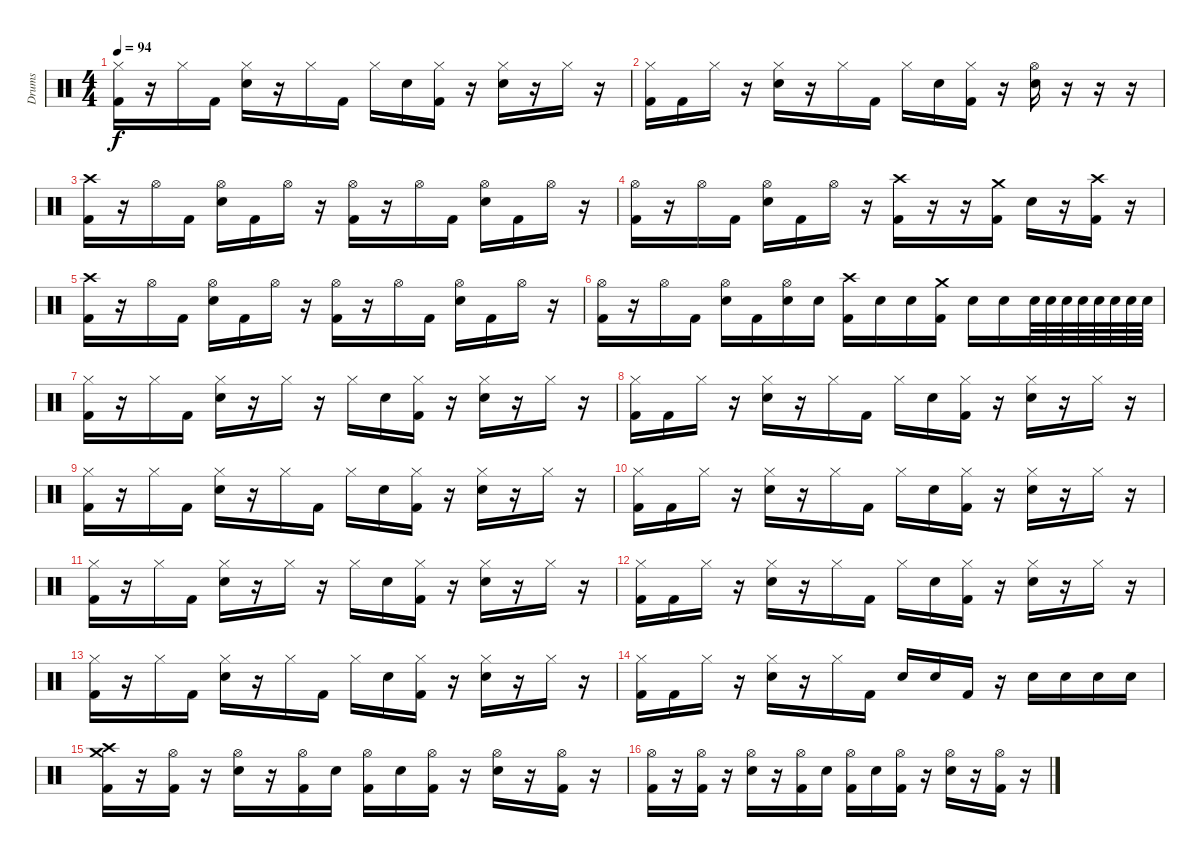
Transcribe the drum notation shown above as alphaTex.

\track ("Drums" "Drums") {instrument percussion}
\staff {score}
\articulation defaults
\ts (4 4)
\tempo 94
\clef neutral
\ks c
("Hi-Hat (closed)" "Kick (hit) 2").16{dy f} r.16 "Hi-Hat (closed)".16 "Kick (hit) 2".16 ("Hi-Hat (closed)" "Snare (hit) 2").16 r.16 "Hi-Hat (closed)".16 "Kick (hit) 2".16 "Hi-Hat (closed)".16 "Snare (hit) 2".16 ("Hi-Hat (closed)" "Kick (hit) 2").16 r.16 ("Hi-Hat (closed)" "Snare (hit) 2").16 r.16 "Hi-Hat (closed)".16 r.16 |
("Hi-Hat (closed)" "Kick (hit) 2").16 "Kick (hit) 2".16 "Hi-Hat (closed)".16 r.16 ("Hi-Hat (closed)" "Snare (hit) 2").16 r.16 "Hi-Hat (closed)".16 "Kick (hit) 2".16 "Hi-Hat (closed)".16 "Snare (hit) 2".16 ("Hi-Hat (closed)" "Kick (hit) 2").16 r.16 ("Hi-Hat (open)" "Snare (hit) 2").16 r.16 r.16 r.16 |
("Crash high (hit)" "Kick (hit) 2").16 r.16 "Hi-Hat (open)".16 "Kick (hit) 2".16 ("Hi-Hat (open)" "Snare (hit) 2").16 "Kick (hit) 2".16 "Hi-Hat (open)".16 r.16 ("Hi-Hat (open)" "Kick (hit) 2").16 r.16 "Hi-Hat (open)".16 "Kick (hit) 2".16 ("Hi-Hat (open)" "Snare (hit) 2").16 "Kick (hit) 2".16 "Hi-Hat (open)".16 r.16 |
("Hi-Hat (open)" "Kick (hit) 2").16 r.16 "Hi-Hat (open)".16 "Kick (hit) 2".16 ("Hi-Hat (open)" "Snare (hit) 2").16 "Kick (hit) 2".16 "Hi-Hat (open)".16 r.16 ("Crash high (hit)" "Kick (hit) 2").16 r.16 r.16 ("Crash medium (hit)" "Kick (hit) 2").16 "Snare (hit) 2".16 r.16 ("Crash high (hit)" "Kick (hit) 2").16 r.16 |
("Crash high (hit)" "Kick (hit) 2").16 r.16 "Hi-Hat (open)".16 "Kick (hit) 2".16 ("Hi-Hat (open)" "Snare (hit) 2").16 "Kick (hit) 2".16 "Hi-Hat (open)".16 r.16 ("Hi-Hat (open)" "Kick (hit) 2").16 r.16 "Hi-Hat (open)".16 "Kick (hit) 2".16 ("Hi-Hat (open)" "Snare (hit) 2").16 "Kick (hit) 2".16 "Hi-Hat (open)".16 r.16 |
("Hi-Hat (open)" "Kick (hit) 2").16 r.16 "Hi-Hat (open)".16 "Kick (hit) 2".16 ("Hi-Hat (open)" "Snare (hit) 2").16 "Kick (hit) 2".16 ("Hi-Hat (open)" "Snare (hit) 2").16 "Snare (hit) 2".16 ("Crash high (hit)" "Kick (hit) 2").16 "Snare (hit) 2".16 "Snare (hit) 2".16 ("Crash medium (hit)" "Kick (hit) 2").16 "Snare (hit) 2".16 "Snare (hit) 2".16 "Snare (hit) 2".64 "Snare (hit) 2".64 "Snare (hit) 2".64 "Snare (hit) 2".64 "Snare (hit) 2".64 "Snare (hit) 2".64 "Snare (hit) 2".64 "Snare (hit) 2".64 |
("Hi-Hat (closed)" "Kick (hit) 2").16 r.16 "Hi-Hat (closed)".16 "Kick (hit) 2".16 ("Hi-Hat (closed)" "Snare (hit) 2").16 r.16 "Hi-Hat (closed)".16 r.16 "Hi-Hat (closed)".16 "Snare (hit) 2".16 ("Hi-Hat (closed)" "Kick (hit) 2").16 r.16 ("Hi-Hat (closed)" "Snare (hit) 2").16 r.16 "Hi-Hat (closed)".16 r.16 |
("Hi-Hat (closed)" "Kick (hit) 2").16 "Kick (hit) 2".16 "Hi-Hat (closed)".16 r.16 ("Hi-Hat (closed)" "Snare (hit) 2").16 r.16 "Hi-Hat (closed)".16 "Kick (hit) 2".16 "Hi-Hat (closed)".16 "Snare (hit) 2".16 ("Hi-Hat (closed)" "Kick (hit) 2").16 r.16 ("Hi-Hat (closed)" "Snare (hit) 2").16 r.16 "Hi-Hat (closed)".16 r.16 |
("Hi-Hat (closed)" "Kick (hit) 2").16 r.16 "Hi-Hat (closed)".16 "Kick (hit) 2".16 ("Hi-Hat (closed)" "Snare (hit) 2").16 r.16 "Hi-Hat (closed)".16 "Kick (hit) 2".16 "Hi-Hat (closed)".16 "Snare (hit) 2".16 ("Hi-Hat (closed)" "Kick (hit) 2").16 r.16 ("Hi-Hat (closed)" "Snare (hit) 2").16 r.16 "Hi-Hat (closed)".16 r.16 |
("Hi-Hat (closed)" "Kick (hit) 2").16 "Kick (hit) 2".16 "Hi-Hat (closed)".16 r.16 ("Hi-Hat (closed)" "Snare (hit) 2").16 r.16 "Hi-Hat (closed)".16 "Kick (hit) 2".16 "Hi-Hat (closed)".16 "Snare (hit) 2".16 ("Hi-Hat (closed)" "Kick (hit) 2").16 r.16 ("Hi-Hat (closed)" "Snare (hit) 2").16 r.16 "Hi-Hat (closed)".16 r.16 |
("Hi-Hat (closed)" "Kick (hit) 2").16 r.16 "Hi-Hat (closed)".16 "Kick (hit) 2".16 ("Hi-Hat (closed)" "Snare (hit) 2").16 r.16 "Hi-Hat (closed)".16 r.16 "Hi-Hat (closed)".16 "Snare (hit) 2".16 ("Hi-Hat (closed)" "Kick (hit) 2").16 r.16 ("Hi-Hat (closed)" "Snare (hit) 2").16 r.16 "Hi-Hat (closed)".16 r.16 |
("Hi-Hat (closed)" "Kick (hit) 2").16 "Kick (hit) 2".16 "Hi-Hat (closed)".16 r.16 ("Hi-Hat (closed)" "Snare (hit) 2").16 r.16 "Hi-Hat (closed)".16 "Kick (hit) 2".16 "Hi-Hat (closed)".16 "Snare (hit) 2".16 ("Hi-Hat (closed)" "Kick (hit) 2").16 r.16 ("Hi-Hat (closed)" "Snare (hit) 2").16 r.16 "Hi-Hat (closed)".16 r.16 |
("Hi-Hat (closed)" "Kick (hit) 2").16 r.16 "Hi-Hat (closed)".16 "Kick (hit) 2".16 ("Hi-Hat (closed)" "Snare (hit) 2").16 r.16 "Hi-Hat (closed)".16 "Kick (hit) 2".16 "Hi-Hat (closed)".16 "Snare (hit) 2".16 ("Hi-Hat (closed)" "Kick (hit) 2").16 r.16 ("Hi-Hat (closed)" "Snare (hit) 2").16 r.16 "Hi-Hat (closed)".16 r.16 |
("Hi-Hat (closed)" "Kick (hit) 2").16 "Kick (hit) 2".16 "Hi-Hat (closed)".16 r.16 ("Hi-Hat (closed)" "Snare (hit) 2").16 r.16 "Hi-Hat (closed)".16 "Kick (hit) 2".16 "Snare (hit) 2".16 "Snare (hit) 2".16 "Kick (hit) 2".16 r.16 "Snare (hit) 2".16 "Snare (hit) 2".16 "Snare (hit) 2".16 "Snare (hit) 2".16 |
("Crash high (hit)" "Crash medium (hit)" "Kick (hit) 2").16 r.16 ("Hi-Hat (open)" "Kick (hit) 2").16 r.16 ("Hi-Hat (open)" "Snare (hit) 2").16 r.16 ("Hi-Hat (open)" "Kick (hit) 2").16 "Snare (hit) 2".16 ("Hi-Hat (open)" "Kick (hit) 2").16 "Snare (hit) 2".16 ("Hi-Hat (open)" "Kick (hit) 2").16 r.16 ("Hi-Hat (open)" "Snare (hit) 2").16 r.16 ("Hi-Hat (open)" "Kick (hit) 2").16 r.16 |
("Hi-Hat (open)" "Kick (hit) 2").16 r.16 ("Hi-Hat (open)" "Kick (hit) 2").16 r.16 ("Hi-Hat (open)" "Snare (hit) 2").16 r.16 ("Hi-Hat (open)" "Kick (hit) 2").16 "Snare (hit) 2".16 ("Hi-Hat (open)" "Kick (hit) 2").16 "Snare (hit) 2".16 ("Hi-Hat (open)" "Kick (hit) 2").16 r.16 ("Hi-Hat (open)" "Snare (hit) 2").16 r.16 ("Hi-Hat (open)" "Kick (hit) 2").16 r.16
